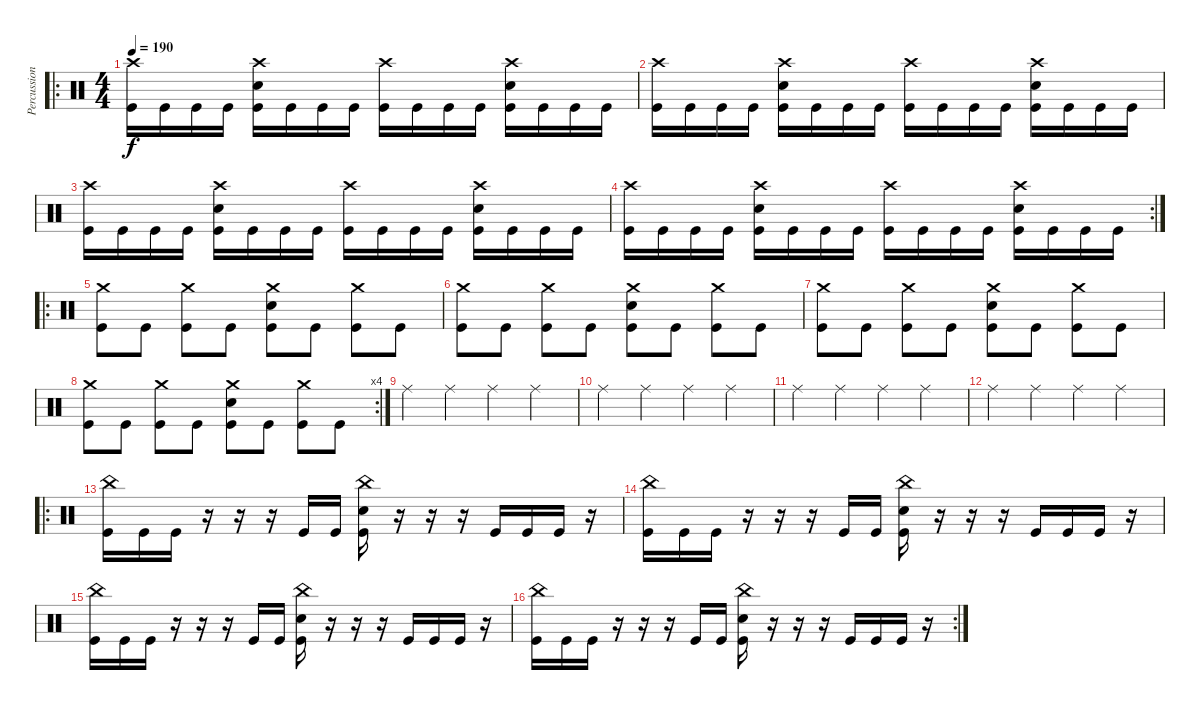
\track ("Percussion" "Percussion") {instrument percussion}
\staff {score}
\articulation defaults
\ro
\ts (4 4)
\tempo 190
\clef neutral
\ks c
("Crash high (hit)" "Kick (hit)").16{dy f} "Kick (hit)".16 "Kick (hit)".16 "Kick (hit)".16 ("Crash high (hit)" "Snare (hit) 2" "Kick (hit)").16 "Kick (hit)".16 "Kick (hit)".16 "Kick (hit)".16 ("Crash high (hit)" "Kick (hit)").16 "Kick (hit)".16 "Kick (hit)".16 "Kick (hit)".16 ("Crash high (hit)" "Snare (hit) 2" "Kick (hit)").16 "Kick (hit)".16 "Kick (hit)".16 "Kick (hit)".16 |
("Crash high (hit)" "Kick (hit)").16 "Kick (hit)".16 "Kick (hit)".16 "Kick (hit)".16 ("Crash high (hit)" "Snare (hit) 2" "Kick (hit)").16 "Kick (hit)".16 "Kick (hit)".16 "Kick (hit)".16 ("Crash high (hit)" "Kick (hit)").16 "Kick (hit)".16 "Kick (hit)".16 "Kick (hit)".16 ("Crash high (hit)" "Snare (hit) 2" "Kick (hit)").16 "Kick (hit)".16 "Kick (hit)".16 "Kick (hit)".16 |
("Crash high (hit)" "Kick (hit)").16 "Kick (hit)".16 "Kick (hit)".16 "Kick (hit)".16 ("Crash high (hit)" "Snare (hit) 2" "Kick (hit)").16 "Kick (hit)".16 "Kick (hit)".16 "Kick (hit)".16 ("Crash high (hit)" "Kick (hit)").16 "Kick (hit)".16 "Kick (hit)".16 "Kick (hit)".16 ("Crash high (hit)" "Snare (hit) 2" "Kick (hit)").16 "Kick (hit)".16 "Kick (hit)".16 "Kick (hit)".16 |
\rc 2
("Crash high (hit)" "Kick (hit)").16 "Kick (hit)".16 "Kick (hit)".16 "Kick (hit)".16 ("Crash high (hit)" "Snare (hit) 2" "Kick (hit)").16 "Kick (hit)".16 "Kick (hit)".16 "Kick (hit)".16 ("Crash high (hit)" "Kick (hit)").16 "Kick (hit)".16 "Kick (hit)".16 "Kick (hit)".16 ("Crash high (hit)" "Snare (hit) 2" "Kick (hit)").16 "Kick (hit)".16 "Kick (hit)".16 "Kick (hit)".16 |
\ro
("Crash medium (hit)" "Kick (hit)").8 "Kick (hit)".8 ("Crash medium (hit)" "Kick (hit)").8 "Kick (hit)".8 ("Crash medium (hit)" "Snare (hit) 2" "Kick (hit)").8 "Kick (hit)".8 ("Crash medium (hit)" "Kick (hit)").8 "Kick (hit)".8 |
("Crash medium (hit)" "Kick (hit)").8 "Kick (hit)".8 ("Crash medium (hit)" "Kick (hit)").8 "Kick (hit)".8 ("Crash medium (hit)" "Snare (hit) 2" "Kick (hit)").8 "Kick (hit)".8 ("Crash medium (hit)" "Kick (hit)").8 "Kick (hit)".8 |
("Crash medium (hit)" "Kick (hit)").8 "Kick (hit)".8 ("Crash medium (hit)" "Kick (hit)").8 "Kick (hit)".8 ("Crash medium (hit)" "Snare (hit) 2" "Kick (hit)").8 "Kick (hit)".8 ("Crash medium (hit)" "Kick (hit)").8 "Kick (hit)".8 |
\rc 4
("Crash medium (hit)" "Kick (hit)").8 "Kick (hit)".8 ("Crash medium (hit)" "Kick (hit)").8 "Kick (hit)".8 ("Crash medium (hit)" "Snare (hit) 2" "Kick (hit)").8 "Kick (hit)".8 ("Crash medium (hit)" "Kick (hit)").8 "Kick (hit)".8 |
"Ride (middle)".4 "Ride (middle)".4 "Ride (middle)".4 "Ride (middle)".4 |
"Ride (middle)".4 "Ride (middle)".4 "Ride (middle)".4 "Ride (middle)".4 |
"Ride (middle)".4 "Ride (middle)".4 "Ride (middle)".4 "Ride (middle)".4 |
"Ride (middle)".4 "Ride (middle)".4 "Ride (middle)".4 "Ride (middle)".4 |
\ro
("China (hit)" "Kick (hit)").16 "Kick (hit)".16 "Kick (hit)".16 r.16 r.16 r.16 "Kick (hit)".16 "Kick (hit)".16 ("China (hit)" "Snare (hit) 2" "Kick (hit)").16 r.16 r.16 r.16 "Kick (hit)".16 "Kick (hit)".16 "Kick (hit)".16 r.16 |
("China (hit)" "Kick (hit)").16 "Kick (hit)".16 "Kick (hit)".16 r.16 r.16 r.16 "Kick (hit)".16 "Kick (hit)".16 ("China (hit)" "Snare (hit) 2" "Kick (hit)").16 r.16 r.16 r.16 "Kick (hit)".16 "Kick (hit)".16 "Kick (hit)".16 r.16 |
("China (hit)" "Kick (hit)").16 "Kick (hit)".16 "Kick (hit)".16 r.16 r.16 r.16 "Kick (hit)".16 "Kick (hit)".16 ("China (hit)" "Snare (hit) 2" "Kick (hit)").16 r.16 r.16 r.16 "Kick (hit)".16 "Kick (hit)".16 "Kick (hit)".16 r.16 |
\rc 2
("China (hit)" "Kick (hit)").16 "Kick (hit)".16 "Kick (hit)".16 r.16 r.16 r.16 "Kick (hit)".16 "Kick (hit)".16 ("China (hit)" "Snare (hit) 2" "Kick (hit)").16 r.16 r.16 r.16 "Kick (hit)".16 "Kick (hit)".16 "Kick (hit)".16 r.16
